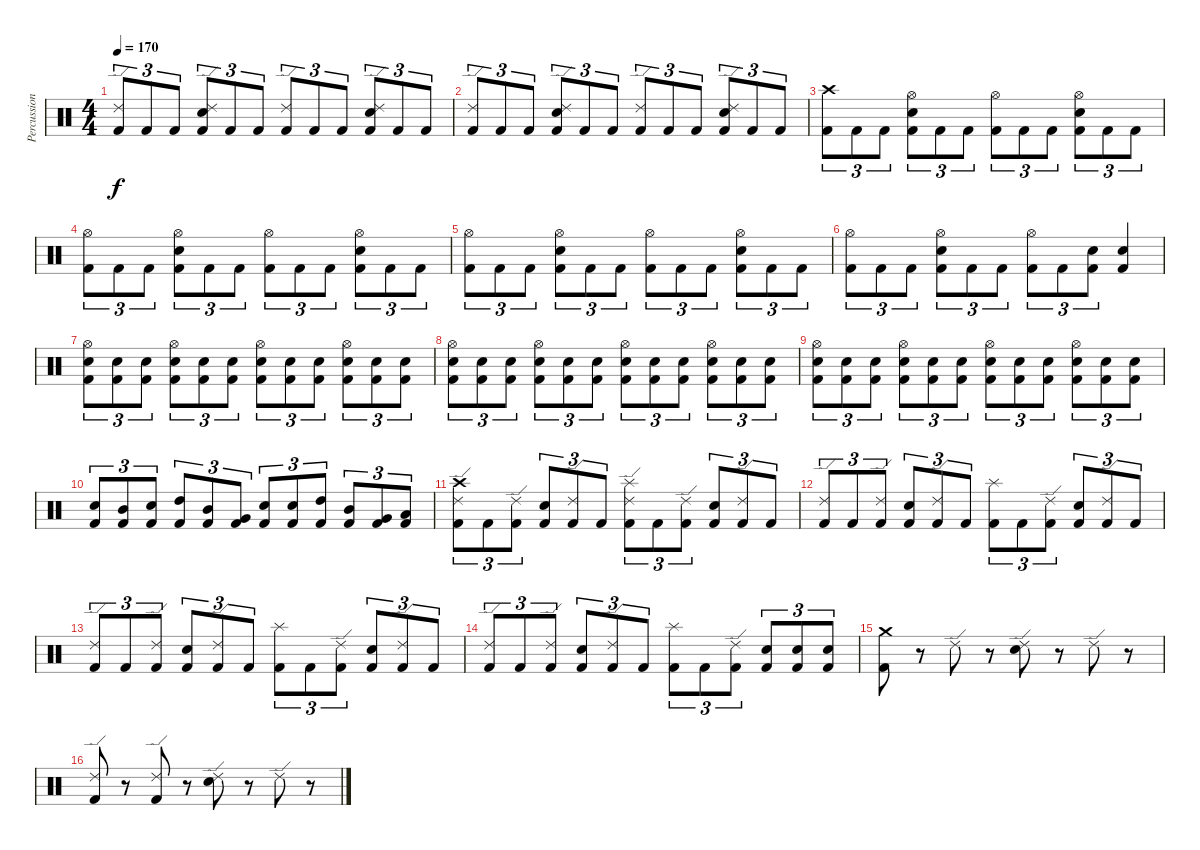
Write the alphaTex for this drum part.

\track ("Percussion" "Percussion") {instrument percussion}
\staff {score}
\articulation defaults
\ts (4 4)
\tempo 170
\clef neutral
\ks c
("Ride (edge) 2" "Kick (hit) 2").8{tu (3 2) dy f} "Kick (hit) 2".8{tu (3 2)} "Kick (hit) 2".8{tu (3 2)} ("Ride (edge) 2" "Snare (hit) 2" "Kick (hit) 2").8{tu (3 2)} "Kick (hit) 2".8{tu (3 2)} "Kick (hit) 2".8{tu (3 2)} ("Ride (edge) 2" "Kick (hit) 2").8{tu (3 2)} "Kick (hit) 2".8{tu (3 2)} "Kick (hit) 2".8{tu (3 2)} ("Ride (edge) 2" "Snare (hit) 2" "Kick (hit) 2").8{tu (3 2)} "Kick (hit) 2".8{tu (3 2)} "Kick (hit) 2".8{tu (3 2)} |
("Ride (edge) 2" "Kick (hit) 2").8{tu (3 2)} "Kick (hit) 2".8{tu (3 2)} "Kick (hit) 2".8{tu (3 2)} ("Ride (edge) 2" "Snare (hit) 2" "Kick (hit) 2").8{tu (3 2)} "Kick (hit) 2".8{tu (3 2)} "Kick (hit) 2".8{tu (3 2)} ("Ride (edge) 2" "Kick (hit) 2").8{tu (3 2)} "Kick (hit) 2".8{tu (3 2)} "Kick (hit) 2".8{tu (3 2)} ("Ride (edge) 2" "Snare (hit) 2" "Kick (hit) 2").8{tu (3 2)} "Kick (hit) 2".8{tu (3 2)} "Kick (hit) 2".8{tu (3 2)} |
("Crash high (hit)" "Kick (hit) 2").8{tu (3 2)} "Kick (hit) 2".8{tu (3 2)} "Kick (hit) 2".8{tu (3 2)} ("Hi-Hat (open)" "Snare (hit) 2" "Kick (hit) 2").8{tu (3 2)} "Kick (hit) 2".8{tu (3 2)} "Kick (hit) 2".8{tu (3 2)} ("Hi-Hat (open)" "Kick (hit) 2").8{tu (3 2)} "Kick (hit) 2".8{tu (3 2)} "Kick (hit) 2".8{tu (3 2)} ("Hi-Hat (open)" "Snare (hit) 2" "Kick (hit) 2").8{tu (3 2)} "Kick (hit) 2".8{tu (3 2)} "Kick (hit) 2".8{tu (3 2)} |
("Hi-Hat (open)" "Kick (hit) 2").8{tu (3 2)} "Kick (hit) 2".8{tu (3 2)} "Kick (hit) 2".8{tu (3 2)} ("Hi-Hat (open)" "Snare (hit) 2" "Kick (hit) 2").8{tu (3 2)} "Kick (hit) 2".8{tu (3 2)} "Kick (hit) 2".8{tu (3 2)} ("Hi-Hat (open)" "Kick (hit) 2").8{tu (3 2)} "Kick (hit) 2".8{tu (3 2)} "Kick (hit) 2".8{tu (3 2)} ("Hi-Hat (open)" "Snare (hit) 2" "Kick (hit) 2").8{tu (3 2)} "Kick (hit) 2".8{tu (3 2)} "Kick (hit) 2".8{tu (3 2)} |
("Hi-Hat (open)" "Kick (hit) 2").8{tu (3 2)} "Kick (hit) 2".8{tu (3 2)} "Kick (hit) 2".8{tu (3 2)} ("Hi-Hat (open)" "Snare (hit) 2" "Kick (hit) 2").8{tu (3 2)} "Kick (hit) 2".8{tu (3 2)} "Kick (hit) 2".8{tu (3 2)} ("Hi-Hat (open)" "Kick (hit) 2").8{tu (3 2)} "Kick (hit) 2".8{tu (3 2)} "Kick (hit) 2".8{tu (3 2)} ("Hi-Hat (open)" "Snare (hit) 2" "Kick (hit) 2").8{tu (3 2)} "Kick (hit) 2".8{tu (3 2)} "Kick (hit) 2".8{tu (3 2)} |
("Hi-Hat (open)" "Kick (hit) 2").8{tu (3 2)} "Kick (hit) 2".8{tu (3 2)} "Kick (hit) 2".8{tu (3 2)} ("Hi-Hat (open)" "Snare (hit) 2" "Kick (hit) 2").8{tu (3 2)} "Kick (hit) 2".8{tu (3 2)} "Kick (hit) 2".8{tu (3 2)} ("Hi-Hat (open)" "Kick (hit) 2").8{tu (3 2)} "Kick (hit) 2".8{tu (3 2)} ("Snare (hit) 2" "Kick (hit) 2").8{tu (3 2)} ("Snare (hit) 2" "Kick (hit) 2").4 |
("Hi-Hat (open)" "Snare (hit) 2" "Kick (hit) 2").8{tu (3 2)} ("Snare (hit) 2" "Kick (hit) 2").8{tu (3 2)} ("Snare (hit) 2" "Kick (hit) 2").8{tu (3 2)} ("Hi-Hat (open)" "Snare (hit) 2" "Kick (hit) 2").8{tu (3 2)} ("Snare (hit) 2" "Kick (hit) 2").8{tu (3 2)} ("Snare (hit) 2" "Kick (hit) 2").8{tu (3 2)} ("Hi-Hat (open)" "Snare (hit) 2" "Kick (hit) 2").8{tu (3 2)} ("Snare (hit) 2" "Kick (hit) 2").8{tu (3 2)} ("Snare (hit) 2" "Kick (hit) 2").8{tu (3 2)} ("Hi-Hat (open)" "Snare (hit) 2" "Kick (hit) 2").8{tu (3 2)} ("Snare (hit) 2" "Kick (hit) 2").8{tu (3 2)} ("Snare (hit) 2" "Kick (hit) 2").8{tu (3 2)} |
("Hi-Hat (open)" "Snare (hit) 2" "Kick (hit) 2").8{tu (3 2)} ("Snare (hit) 2" "Kick (hit) 2").8{tu (3 2)} ("Snare (hit) 2" "Kick (hit) 2").8{tu (3 2)} ("Hi-Hat (open)" "Snare (hit) 2" "Kick (hit) 2").8{tu (3 2)} ("Snare (hit) 2" "Kick (hit) 2").8{tu (3 2)} ("Snare (hit) 2" "Kick (hit) 2").8{tu (3 2)} ("Hi-Hat (open)" "Snare (hit) 2" "Kick (hit) 2").8{tu (3 2)} ("Snare (hit) 2" "Kick (hit) 2").8{tu (3 2)} ("Snare (hit) 2" "Kick (hit) 2").8{tu (3 2)} ("Hi-Hat (open)" "Snare (hit) 2" "Kick (hit) 2").8{tu (3 2)} ("Snare (hit) 2" "Kick (hit) 2").8{tu (3 2)} ("Snare (hit) 2" "Kick (hit) 2").8{tu (3 2)} |
("Hi-Hat (open)" "Snare (hit) 2" "Kick (hit) 2").8{tu (3 2)} ("Snare (hit) 2" "Kick (hit) 2").8{tu (3 2)} ("Snare (hit) 2" "Kick (hit) 2").8{tu (3 2)} ("Hi-Hat (open)" "Snare (hit) 2" "Kick (hit) 2").8{tu (3 2)} ("Snare (hit) 2" "Kick (hit) 2").8{tu (3 2)} ("Snare (hit) 2" "Kick (hit) 2").8{tu (3 2)} ("Hi-Hat (open)" "Snare (hit) 2" "Kick (hit) 2").8{tu (3 2)} ("Snare (hit) 2" "Kick (hit) 2").8{tu (3 2)} ("Snare (hit) 2" "Kick (hit) 2").8{tu (3 2)} ("Hi-Hat (open)" "Snare (hit) 2" "Kick (hit) 2").8{tu (3 2)} ("Snare (hit) 2" "Kick (hit) 2").8{tu (3 2)} ("Snare (hit) 2" "Kick (hit) 2").8{tu (3 2)} |
("Snare (hit) 2" "Kick (hit) 2").8{tu (3 2)} ("Mid Tom (hit)" "Kick (hit) 2").8{tu (3 2)} ("Snare (hit) 2" "Kick (hit) 2").8{tu (3 2)} ("High Tom (hit)" "Kick (hit) 2").8{tu (3 2)} ("Mid Tom (hit)" "Kick (hit) 2").8{tu (3 2)} ("Very Low Tom (hit)" "Kick (hit) 2").8{tu (3 2)} ("Snare (hit) 2" "Kick (hit) 2").8{tu (3 2)} ("Snare (hit) 2" "Kick (hit) 2").8{tu (3 2)} ("High Tom (hit)" "Kick (hit) 2").8{tu (3 2)} ("Mid Tom (hit)" "Kick (hit) 2").8{tu (3 2)} ("Very Low Tom (hit)" "Kick (hit) 2").8{tu (3 2)} ("Low Floor Tom (hit)" "Kick (hit) 2").8{tu (3 2)} |
("Crash high (hit)" "Ride (edge) 2" "Kick (hit) 2").8{tu (3 2)} "Kick (hit) 2".8{tu (3 2)} ("Ride (edge) 2" "Kick (hit) 2").8{tu (3 2)} ("Snare (hit) 2" "Kick (hit) 2").8{tu (3 2)} ("Ride (edge) 2" "Kick (hit) 2").8{tu (3 2)} "Kick (hit) 2".8{tu (3 2)} ("Splash (hit)" "Ride (edge) 2" "Kick (hit) 2").8{tu (3 2)} "Kick (hit) 2".8{tu (3 2)} ("Ride (edge) 2" "Kick (hit) 2").8{tu (3 2)} ("Snare (hit) 2" "Kick (hit) 2").8{tu (3 2)} ("Ride (edge) 2" "Kick (hit) 2").8{tu (3 2)} "Kick (hit) 2".8{tu (3 2)} |
("Ride (edge) 2" "Kick (hit) 2").8{tu (3 2)} "Kick (hit) 2".8{tu (3 2)} ("Ride (edge) 2" "Kick (hit) 2").8{tu (3 2)} ("Snare (hit) 2" "Kick (hit) 2").8{tu (3 2)} ("Ride (edge) 2" "Kick (hit) 2").8{tu (3 2)} "Kick (hit) 2".8{tu (3 2)} ("Splash (hit)" "Kick (hit) 2").8{tu (3 2)} "Kick (hit) 2".8{tu (3 2)} ("Ride (edge) 2" "Kick (hit) 2").8{tu (3 2)} ("Snare (hit) 2" "Kick (hit) 2").8{tu (3 2)} ("Ride (edge) 2" "Kick (hit) 2").8{tu (3 2)} "Kick (hit) 2".8{tu (3 2)} |
("Ride (edge) 2" "Kick (hit) 2").8{tu (3 2)} "Kick (hit) 2".8{tu (3 2)} ("Ride (edge) 2" "Kick (hit) 2").8{tu (3 2)} ("Snare (hit) 2" "Kick (hit) 2").8{tu (3 2)} ("Ride (edge) 2" "Kick (hit) 2").8{tu (3 2)} "Kick (hit) 2".8{tu (3 2)} ("Splash (hit)" "Kick (hit) 2").8{tu (3 2)} "Kick (hit) 2".8{tu (3 2)} ("Ride (edge) 2" "Kick (hit) 2").8{tu (3 2)} ("Snare (hit) 2" "Kick (hit) 2").8{tu (3 2)} ("Ride (edge) 2" "Kick (hit) 2").8{tu (3 2)} "Kick (hit) 2".8{tu (3 2)} |
("Ride (edge) 2" "Kick (hit) 2").8{tu (3 2)} "Kick (hit) 2".8{tu (3 2)} ("Ride (edge) 2" "Kick (hit) 2").8{tu (3 2)} ("Snare (hit) 2" "Kick (hit) 2").8{tu (3 2)} ("Ride (edge) 2" "Kick (hit) 2").8{tu (3 2)} "Kick (hit) 2".8{tu (3 2)} ("Splash (hit)" "Kick (hit) 2").8{tu (3 2)} "Kick (hit) 2".8{tu (3 2)} ("Ride (edge) 2" "Kick (hit) 2").8{tu (3 2)} ("Snare (hit) 2" "Kick (hit) 2").8{tu (3 2)} ("Snare (hit) 2" "Kick (hit) 2").8{tu (3 2)} ("Snare (hit) 2" "Kick (hit) 2").8{tu (3 2)} |
("Crash medium (hit)" "Kick (hit) 2").8 r.8 "Ride (edge) 2".8 r.8 ("Ride (edge) 2" "Snare (hit) 2").8 r.8 "Ride (edge) 2".8 r.8 |
("Ride (edge) 2" "Kick (hit) 2").8 r.8 ("Ride (edge) 2" "Kick (hit) 2").8 r.8 ("Ride (edge) 2" "Snare (hit) 2").8 r.8 "Ride (edge) 2".8 r.8
